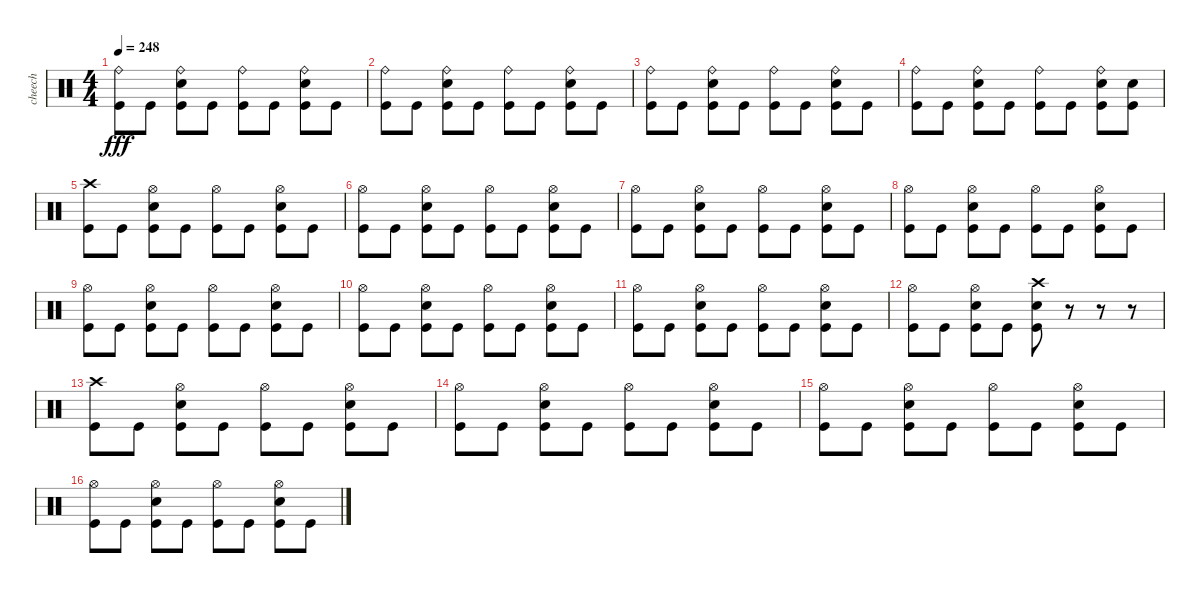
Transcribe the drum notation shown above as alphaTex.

\track ("cheech" "cheech") {instrument percussion}
\staff {score}
\articulation defaults
\ts (4 4)
\tempo 248
\clef neutral
\ks c
("Ride (bell)" "Kick (hit)").8{dy fff} "Kick (hit)".8 ("Ride (bell)" "Electric Snare (hit)" "Kick (hit)").8 "Kick (hit)".8 ("Ride (bell)" "Kick (hit)").8 "Kick (hit)".8 ("Ride (bell)" "Electric Snare (hit)" "Kick (hit)").8 "Kick (hit)".8 |
("Ride (bell)" "Kick (hit)").8 "Kick (hit)".8 ("Ride (bell)" "Electric Snare (hit)" "Kick (hit)").8 "Kick (hit)".8 ("Ride (bell)" "Kick (hit)").8 "Kick (hit)".8 ("Ride (bell)" "Electric Snare (hit)" "Kick (hit)").8 "Kick (hit)".8 |
("Ride (bell)" "Kick (hit)").8 "Kick (hit)".8 ("Ride (bell)" "Electric Snare (hit)" "Kick (hit)").8 "Kick (hit)".8 ("Ride (bell)" "Kick (hit)").8 "Kick (hit)".8 ("Ride (bell)" "Electric Snare (hit)" "Kick (hit)").8 "Kick (hit)".8 |
("Ride (bell)" "Kick (hit)").8 "Kick (hit)".8 ("Ride (bell)" "Electric Snare (hit)" "Kick (hit)").8 "Kick (hit)".8 ("Ride (bell)" "Kick (hit)").8 "Kick (hit)".8 ("Ride (bell)" "Electric Snare (hit)" "Kick (hit)").8 ("Electric Snare (hit)" "Kick (hit)").8 |
("Crash high (hit)" "Kick (hit)").8 "Kick (hit)".8 ("Hi-Hat (open)" "Electric Snare (hit)" "Kick (hit)").8 "Kick (hit)".8 ("Hi-Hat (open)" "Kick (hit)").8 "Kick (hit)".8 ("Hi-Hat (open)" "Electric Snare (hit)" "Kick (hit)").8 "Kick (hit)".8 |
("Hi-Hat (open)" "Kick (hit)").8 "Kick (hit)".8 ("Hi-Hat (open)" "Electric Snare (hit)" "Kick (hit)").8 "Kick (hit)".8 ("Hi-Hat (open)" "Kick (hit)").8 "Kick (hit)".8 ("Hi-Hat (open)" "Electric Snare (hit)" "Kick (hit)").8 "Kick (hit)".8 |
("Hi-Hat (open)" "Kick (hit)").8 "Kick (hit)".8 ("Hi-Hat (open)" "Electric Snare (hit)" "Kick (hit)").8 "Kick (hit)".8 ("Hi-Hat (open)" "Kick (hit)").8 "Kick (hit)".8 ("Hi-Hat (open)" "Electric Snare (hit)" "Kick (hit)").8 "Kick (hit)".8 |
("Hi-Hat (open)" "Kick (hit)").8 "Kick (hit)".8 ("Hi-Hat (open)" "Electric Snare (hit)" "Kick (hit)").8 "Kick (hit)".8 ("Hi-Hat (open)" "Kick (hit)").8 "Kick (hit)".8 ("Hi-Hat (open)" "Electric Snare (hit)" "Kick (hit)").8 "Kick (hit)".8 |
("Hi-Hat (open)" "Kick (hit)").8 "Kick (hit)".8 ("Hi-Hat (open)" "Electric Snare (hit)" "Kick (hit)").8 "Kick (hit)".8 ("Hi-Hat (open)" "Kick (hit)").8 "Kick (hit)".8 ("Hi-Hat (open)" "Electric Snare (hit)" "Kick (hit)").8 "Kick (hit)".8 |
("Hi-Hat (open)" "Kick (hit)").8 "Kick (hit)".8 ("Hi-Hat (open)" "Electric Snare (hit)" "Kick (hit)").8 "Kick (hit)".8 ("Hi-Hat (open)" "Kick (hit)").8 "Kick (hit)".8 ("Hi-Hat (open)" "Electric Snare (hit)" "Kick (hit)").8 "Kick (hit)".8 |
("Hi-Hat (open)" "Kick (hit)").8 "Kick (hit)".8 ("Hi-Hat (open)" "Electric Snare (hit)" "Kick (hit)").8 "Kick (hit)".8 ("Hi-Hat (open)" "Kick (hit)").8 "Kick (hit)".8 ("Hi-Hat (open)" "Electric Snare (hit)" "Kick (hit)").8 "Kick (hit)".8 |
("Hi-Hat (open)" "Kick (hit)").8 "Kick (hit)".8 ("Hi-Hat (open)" "Electric Snare (hit)" "Kick (hit)").8 "Kick (hit)".8 ("Crash high (hit)" "Electric Snare (hit)" "Kick (hit)").8 r.8 r.8 r.8 |
("Crash high (hit)" "Kick (hit)").8 "Kick (hit)".8 ("Hi-Hat (open)" "Electric Snare (hit)" "Kick (hit)").8 "Kick (hit)".8 ("Hi-Hat (open)" "Kick (hit)").8 "Kick (hit)".8 ("Hi-Hat (open)" "Electric Snare (hit)" "Kick (hit)").8 "Kick (hit)".8 |
("Hi-Hat (open)" "Kick (hit)").8 "Kick (hit)".8 ("Hi-Hat (open)" "Electric Snare (hit)" "Kick (hit)").8 "Kick (hit)".8 ("Hi-Hat (open)" "Kick (hit)").8 "Kick (hit)".8 ("Hi-Hat (open)" "Electric Snare (hit)" "Kick (hit)").8 "Kick (hit)".8 |
("Hi-Hat (open)" "Kick (hit)").8 "Kick (hit)".8 ("Hi-Hat (open)" "Electric Snare (hit)" "Kick (hit)").8 "Kick (hit)".8 ("Hi-Hat (open)" "Kick (hit)").8 "Kick (hit)".8 ("Hi-Hat (open)" "Electric Snare (hit)" "Kick (hit)").8 "Kick (hit)".8 |
("Hi-Hat (open)" "Kick (hit)").8 "Kick (hit)".8 ("Hi-Hat (open)" "Electric Snare (hit)" "Kick (hit)").8 "Kick (hit)".8 ("Hi-Hat (open)" "Kick (hit)").8 "Kick (hit)".8 ("Hi-Hat (open)" "Electric Snare (hit)" "Kick (hit)").8 "Kick (hit)".8
